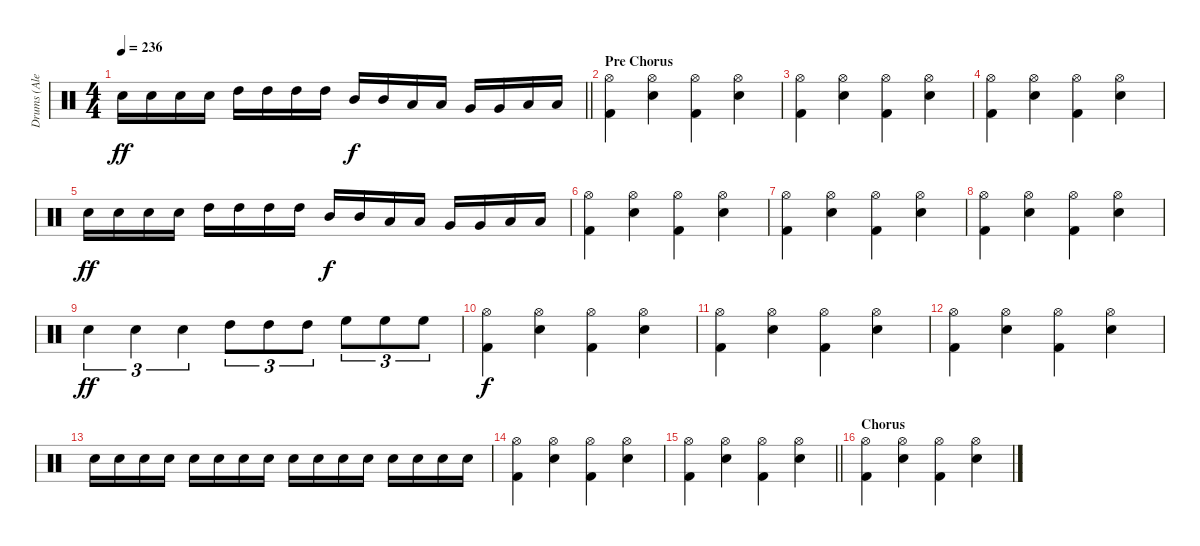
\track ("Drums (Alex Van Halen)" "Drums (Ale") {instrument percussion}
\staff {score}
\articulation defaults
\ts (4 4)
\tempo 236
\clef neutral
\barLineRight lightlight
\ks c "Snare (hit) 2".16{dy ff} "Snare (hit) 2".16 "Snare (hit) 2".16 "Snare (hit) 2".16 "High Tom (hit)".16 "High Tom (hit)".16 "High Tom (hit)".16 "High Tom (hit)".16 "Mid Tom (hit)".16{dy f} "Mid Tom (hit)".16 "Low Tom (hit)".16 "Low Tom (hit)".16 "Very Low Tom (hit)".16 "Very Low Tom (hit)".16 "Low Floor Tom (hit)".16 "Low Floor Tom (hit)".16
|
\section ("" "Pre Chorus")
("Hi-Hat (open)" "Kick (hit) 2").4 ("Hi-Hat (open)" "Electric Snare (hit)").4 ("Hi-Hat (open)" "Kick (hit) 2").4 ("Hi-Hat (open)" "Electric Snare (hit)").4 |
("Hi-Hat (open)" "Kick (hit) 2").4 ("Hi-Hat (open)" "Snare (hit) 2").4 ("Hi-Hat (open)" "Kick (hit) 2").4 ("Hi-Hat (open)" "Snare (hit) 2").4 |
("Hi-Hat (open)" "Kick (hit) 2").4 ("Hi-Hat (open)" "Snare (hit) 2").4 ("Hi-Hat (open)" "Kick (hit) 2").4 ("Hi-Hat (open)" "Snare (hit) 2").4 |
"Electric Snare (hit)".16{dy ff} "Electric Snare (hit)".16 "Electric Snare (hit)".16 "Electric Snare (hit)".16 "High Tom (hit)".16 "High Tom (hit)".16 "High Tom (hit)".16 "High Tom (hit)".16 "Mid Tom (hit)".16{dy f} "Mid Tom (hit)".16 "Low Tom (hit)".16 "Low Tom (hit)".16 "Very Low Tom (hit)".16 "Very Low Tom (hit)".16 "Low Floor Tom (hit)".16 "Low Floor Tom (hit)".16 |
("Hi-Hat (open)" "Kick (hit) 2").4 ("Hi-Hat (open)" "Snare (hit) 2").4 ("Hi-Hat (open)" "Kick (hit) 2").4 ("Hi-Hat (open)" "Snare (hit) 2").4 |
("Hi-Hat (open)" "Kick (hit) 2").4 ("Hi-Hat (open)" "Snare (hit) 2").4 ("Hi-Hat (open)" "Kick (hit) 2").4 ("Hi-Hat (open)" "Snare (hit) 2").4 |
("Hi-Hat (open)" "Kick (hit) 2").4 ("Hi-Hat (open)" "Snare (hit) 2").4 ("Hi-Hat (open)" "Kick (hit) 2").4 ("Hi-Hat (open)" "Snare (hit) 2").4 |
"Snare (hit) 2".4{tu (3 2) dy ff} "Snare (hit) 2".4{tu (3 2)} "Snare (hit) 2".4{tu (3 2)} "High Tom (hit)".8{tu (3 2)} "High Tom (hit)".8{tu (3 2)} "High Tom (hit)".8{tu (3 2)} "High Floor Tom (hit)".8{tu (3 2)} "High Floor Tom (hit)".8{tu (3 2)} "High Floor Tom (hit)".8{tu (3 2)} |
("Hi-Hat (open)" "Kick (hit) 2").4{dy f} ("Hi-Hat (open)" "Snare (hit) 2").4 ("Hi-Hat (open)" "Kick (hit) 2").4 ("Hi-Hat (open)" "Snare (hit) 2").4 |
("Hi-Hat (open)" "Kick (hit) 2").4 ("Hi-Hat (open)" "Snare (hit) 2").4 ("Hi-Hat (open)" "Kick (hit) 2").4 ("Hi-Hat (open)" "Snare (hit) 2").4 |
("Hi-Hat (open)" "Kick (hit) 2").4 ("Hi-Hat (open)" "Snare (hit) 2").4 ("Hi-Hat (open)" "Kick (hit) 2").4 ("Hi-Hat (open)" "Snare (hit) 2").4 |
"Snare (hit) 2".16 "Snare (hit) 2".16 "Snare (hit) 2".16 "Snare (hit) 2".16 "Snare (hit) 2".16 "Snare (hit) 2".16 "Snare (hit) 2".16 "Snare (hit) 2".16 "Snare (hit) 2".16 "Snare (hit) 2".16 "Snare (hit) 2".16 "Snare (hit) 2".16 "Snare (hit) 2".16 "Snare (hit) 2".16 "Snare (hit) 2".16 "Snare (hit) 2".16 |
("Hi-Hat (open)" "Kick (hit) 2").4 ("Hi-Hat (open)" "Snare (hit) 2").4 ("Hi-Hat (open)" "Kick (hit) 2").4 ("Hi-Hat (open)" "Snare (hit) 2").4 |
\barLineRight lightlight
("Hi-Hat (open)" "Kick (hit) 2").4 ("Hi-Hat (open)" "Snare (hit) 2").4 ("Hi-Hat (open)" "Kick (hit) 2").4 ("Hi-Hat (open)" "Snare (hit) 2").4 |
\section ("" "Chorus")
("Hi-Hat (open)" "Kick (hit) 2").4 ("Hi-Hat (open)" "Snare (hit) 2").4 ("Hi-Hat (open)" "Kick (hit) 2").4 ("Hi-Hat (open)" "Snare (hit) 2").4
